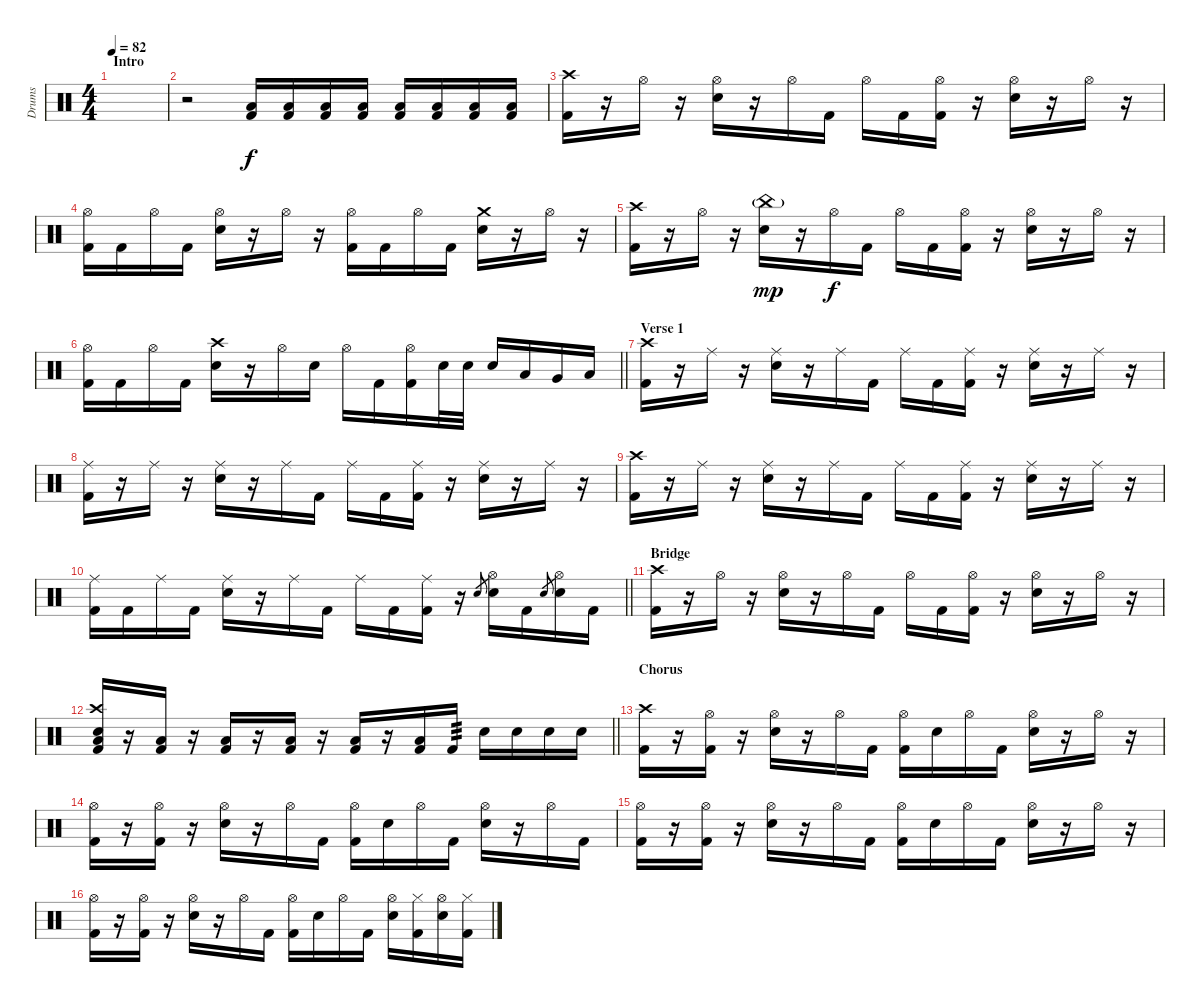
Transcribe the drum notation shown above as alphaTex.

\track ("Drums" "Drums") {instrument percussion}
\staff {score}
\articulation defaults
\ts (4 4)
\section ("" "Intro")
\tempo 82
\clef neutral
\ks c
|
r.2{volume 13} ("Low Floor Tom (hit)" "Kick (hit) 2").16 ("Low Floor Tom (hit)" "Kick (hit) 2").16 ("Low Floor Tom (hit)" "Kick (hit) 2").16 ("Low Floor Tom (hit)" "Kick (hit) 2").16 ("Low Floor Tom (hit)" "Kick (hit) 2").16 ("Low Floor Tom (hit)" "Kick (hit) 2").16 ("Low Floor Tom (hit)" "Kick (hit) 2").16 ("Low Floor Tom (hit)" "Kick (hit) 2").16 |
("Crash high (hit)" "Kick (hit) 2").16 r.16 "Hi-Hat (open)".16 r.16 ("Hi-Hat (open)" "Electric Snare (hit)").16 r.16 "Hi-Hat (open)".16 "Kick (hit) 2".16 "Hi-Hat (open)".16 "Kick (hit) 2".16 ("Hi-Hat (open)" "Kick (hit) 2").16 r.16 ("Hi-Hat (open)" "Electric Snare (hit)").16 r.16 "Hi-Hat (open)".16 r.16 |
("Hi-Hat (open)" "Kick (hit) 2").16 "Kick (hit) 2".16 "Hi-Hat (open)".16 "Kick (hit) 2".16 ("Hi-Hat (open)" "Electric Snare (hit)").16 r.16 "Hi-Hat (open)".16 r.16 ("Hi-Hat (open)" "Kick (hit) 2").16 "Kick (hit) 2".16 "Hi-Hat (open)".16 "Kick (hit) 2".16 ("Crash medium (hit)" "Electric Snare (hit)").16 r.16 "Hi-Hat (open)".16 r.16 |
("Crash high (hit)" "Kick (hit) 2").16 r.16 "Hi-Hat (open)".16 r.16 ("China (hit)"{g} "Electric Snare (hit)").16{dy mp} r.16 "Hi-Hat (open)".16{dy f} "Kick (hit) 2".16 "Hi-Hat (open)".16 "Kick (hit) 2".16 ("Hi-Hat (open)" "Kick (hit) 2").16 r.16 ("Hi-Hat (open)" "Electric Snare (hit)").16 r.16 "Hi-Hat (open)".16 r.16 |
\barLineRight lightlight
("Hi-Hat (open)" "Kick (hit) 2").16 "Kick (hit) 2".16 "Hi-Hat (open)".16 "Kick (hit) 2".16 ("Crash high (hit)" "Electric Snare (hit)").16 r.16 "Hi-Hat (open)".16 "Electric Snare (hit)".16 "Hi-Hat (open)".16 "Kick (hit) 2".16 ("Hi-Hat (open)" "Kick (hit) 2").16 "Electric Snare (hit)".32 "Electric Snare (hit)".32 "Electric Snare (hit)".16 "Low Tom (hit)".16 "Very Low Tom (hit)".16 "Low Floor Tom (hit)".16 |
\section ("" "Verse 1")
("Crash high (hit)" "Kick (hit) 2").16 r.16 "Ride (middle)".16 r.16 ("Ride (middle)" "Electric Snare (hit)").16 r.16 "Ride (middle)".16 "Kick (hit) 2".16 "Ride (middle)".16 "Kick (hit) 2".16 ("Ride (middle)" "Kick (hit) 2").16 r.16 ("Ride (middle)" "Electric Snare (hit)").16 r.16 "Ride (middle)".16 r.16 |
("Ride (middle)" "Kick (hit) 2").16 r.16 "Ride (middle)".16 r.16 ("Ride (middle)" "Electric Snare (hit)").16 r.16 "Ride (middle)".16 "Kick (hit) 2".16 "Ride (middle)".16 "Kick (hit) 2".16 ("Ride (middle)" "Kick (hit) 2").16 r.16 ("Ride (middle)" "Electric Snare (hit)").16 r.16 "Ride (middle)".16 r.16 |
("Crash high (hit)" "Kick (hit) 2").16 r.16 "Ride (middle)".16 r.16 ("Ride (middle)" "Electric Snare (hit)").16 r.16 "Ride (middle)".16 "Kick (hit) 2".16 "Ride (middle)".16 "Kick (hit) 2".16 ("Ride (middle)" "Kick (hit) 2").16 r.16 ("Ride (middle)" "Electric Snare (hit)").16 r.16 "Ride (middle)".16 r.16 |
\barLineRight lightlight
("Ride (middle)" "Kick (hit) 2").16 "Kick (hit) 2".16 "Ride (middle)".16 "Kick (hit) 2".16 ("Ride (middle)" "Electric Snare (hit)").16 r.16 "Ride (middle)".16 "Kick (hit) 2".16 "Ride (middle)".16 "Kick (hit) 2".16 ("Ride (middle)" "Kick (hit) 2").16 r.16 "Electric Snare (hit)".8{gr} ("Hi-Hat (open)" "Electric Snare (hit)").16 "Kick (hit) 2".16 "Electric Snare (hit)".8{gr} ("Hi-Hat (open)" "Electric Snare (hit)").16 "Kick (hit) 2".16 |
\section ("" "Bridge")
("Crash high (hit)" "Kick (hit) 2").16 r.16 "Hi-Hat (open)".16 r.16 ("Hi-Hat (open)" "Electric Snare (hit)").16 r.16 "Hi-Hat (open)".16 "Kick (hit) 2".16 "Hi-Hat (open)".16 "Kick (hit) 2".16 ("Hi-Hat (open)" "Kick (hit) 2").16 r.16 ("Hi-Hat (open)" "Electric Snare (hit)").16 r.16 "Hi-Hat (open)".16 r.16 |
\barLineRight lightlight
("Crash high (hit)" "Electric Snare (hit)" "Low Floor Tom (hit)" "Kick (hit) 2").16 r.16 ("Low Floor Tom (hit)" "Kick (hit) 2").16 r.16 ("Low Floor Tom (hit)" "Kick (hit) 2").16 r.16 ("Low Floor Tom (hit)" "Kick (hit) 2").16 r.16 ("Low Floor Tom (hit)" "Kick (hit) 2").16 r.16 ("Low Floor Tom (hit)" "Kick (hit) 2").16 "Kick (hit) 2".16{tp 3} "Electric Snare (hit)".16 "Electric Snare (hit)".16 "Electric Snare (hit)".16 "Electric Snare (hit)".16 |
\section ("" "Chorus")
("Crash high (hit)" "Kick (hit) 2").16 r.16 ("Hi-Hat (open)" "Kick (hit) 2").16 r.16 ("Hi-Hat (open)" "Electric Snare (hit)").16 r.16 "Hi-Hat (open)".16 "Kick (hit) 2".16 ("Hi-Hat (open)" "Kick (hit) 2").16 "Electric Snare (hit)".16 "Hi-Hat (open)".16 "Kick (hit) 2".16 ("Hi-Hat (open)" "Electric Snare (hit)").16 r.16 "Hi-Hat (open)".16 r.16 |
("Hi-Hat (open)" "Kick (hit) 2").16 r.16 ("Hi-Hat (open)" "Kick (hit) 2").16 r.16 ("Hi-Hat (open)" "Electric Snare (hit)").16 r.16 "Hi-Hat (open)".16 "Kick (hit) 2".16 ("Hi-Hat (open)" "Kick (hit) 2").16 "Electric Snare (hit)".16 "Hi-Hat (open)".16 "Kick (hit) 2".16 ("Hi-Hat (open)" "Electric Snare (hit)").16 r.16 "Hi-Hat (open)".16 "Kick (hit) 2".16 |
("Hi-Hat (open)" "Kick (hit) 2").16 r.16 ("Hi-Hat (open)" "Kick (hit) 2").16 r.16 ("Hi-Hat (open)" "Electric Snare (hit)").16 r.16 "Hi-Hat (open)".16 "Kick (hit) 2".16 ("Hi-Hat (open)" "Kick (hit) 2").16 "Electric Snare (hit)".16 "Hi-Hat (open)".16 "Kick (hit) 2".16 ("Hi-Hat (open)" "Electric Snare (hit)").16 r.16 "Hi-Hat (open)".16 r.16 |
("Hi-Hat (open)" "Kick (hit) 2").16 r.16 ("Hi-Hat (open)" "Kick (hit) 2").16 r.16 ("Hi-Hat (open)" "Electric Snare (hit)").16 r.16 "Hi-Hat (open)".16 "Kick (hit) 2".16 ("Hi-Hat (open)" "Kick (hit) 2").16 "Electric Snare (hit)".16 "Hi-Hat (open)".16 "Kick (hit) 2".16 ("Hi-Hat (open)" "Electric Snare (hit)").16 ("Hi-Hat (closed)" "Kick (hit) 2").16 ("Hi-Hat (open)" "Electric Snare (hit)").16 ("Hi-Hat (closed)" "Kick (hit) 2").16
